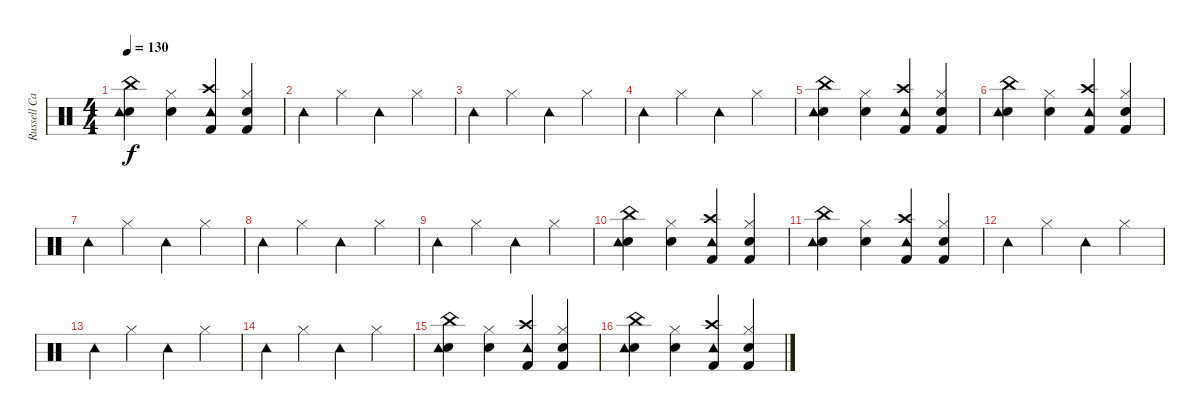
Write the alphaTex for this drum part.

\track ("Russell Cannon" "Russell Ca") {instrument percussion}
\staff {score}
\articulation defaults
\ts (4 4)
\tempo 130
\clef neutral
\ks c
("Electric Snare (hit)" "China (hit)" "Tambourine (hit)").4{dy f} ("Electric Snare (hit)" "Hi-Hat (closed)").4 ("Crash high (hit)" "Kick (hit) 2" "Tambourine (hit)").4 ("Electric Snare (hit)" "Kick (hit) 2" "Hi-Hat (closed)").4 |
"Tambourine (hit)".4 "Hi-Hat (closed)".4 "Tambourine (hit)".4 "Hi-Hat (closed)".4 |
"Tambourine (hit)".4 "Hi-Hat (closed)".4 "Tambourine (hit)".4 "Hi-Hat (closed)".4 |
"Tambourine (hit)".4 "Hi-Hat (closed)".4 "Tambourine (hit)".4 "Hi-Hat (closed)".4 |
("Electric Snare (hit)" "China (hit)" "Tambourine (hit)").4 ("Electric Snare (hit)" "Hi-Hat (closed)").4 ("Crash high (hit)" "Kick (hit) 2" "Tambourine (hit)").4 ("Electric Snare (hit)" "Kick (hit) 2" "Hi-Hat (closed)").4 |
("Electric Snare (hit)" "China (hit)" "Tambourine (hit)").4 ("Electric Snare (hit)" "Hi-Hat (closed)").4 ("Crash high (hit)" "Kick (hit) 2" "Tambourine (hit)").4 ("Electric Snare (hit)" "Kick (hit) 2" "Hi-Hat (closed)").4 |
"Tambourine (hit)".4 "Hi-Hat (closed)".4 "Tambourine (hit)".4 "Hi-Hat (closed)".4 |
"Tambourine (hit)".4 "Hi-Hat (closed)".4 "Tambourine (hit)".4 "Hi-Hat (closed)".4 |
"Tambourine (hit)".4 "Hi-Hat (closed)".4 "Tambourine (hit)".4 "Hi-Hat (closed)".4 |
("Electric Snare (hit)" "China (hit)" "Tambourine (hit)").4 ("Electric Snare (hit)" "Hi-Hat (closed)").4 ("Crash high (hit)" "Kick (hit) 2" "Tambourine (hit)").4 ("Electric Snare (hit)" "Kick (hit) 2" "Hi-Hat (closed)").4 |
("Electric Snare (hit)" "China (hit)" "Tambourine (hit)").4 ("Electric Snare (hit)" "Hi-Hat (closed)").4 ("Crash high (hit)" "Kick (hit) 2" "Tambourine (hit)").4 ("Electric Snare (hit)" "Kick (hit) 2" "Hi-Hat (closed)").4 |
"Tambourine (hit)".4 "Hi-Hat (closed)".4 "Tambourine (hit)".4 "Hi-Hat (closed)".4 |
"Tambourine (hit)".4 "Hi-Hat (closed)".4 "Tambourine (hit)".4 "Hi-Hat (closed)".4 |
"Tambourine (hit)".4 "Hi-Hat (closed)".4 "Tambourine (hit)".4 "Hi-Hat (closed)".4 |
("Electric Snare (hit)" "China (hit)" "Tambourine (hit)").4 ("Electric Snare (hit)" "Hi-Hat (closed)").4 ("Crash high (hit)" "Kick (hit) 2" "Tambourine (hit)").4 ("Electric Snare (hit)" "Kick (hit) 2" "Hi-Hat (closed)").4 |
("Electric Snare (hit)" "China (hit)" "Tambourine (hit)").4 ("Electric Snare (hit)" "Hi-Hat (closed)").4 ("Crash high (hit)" "Kick (hit) 2" "Tambourine (hit)").4 ("Electric Snare (hit)" "Kick (hit) 2" "Hi-Hat (closed)").4
